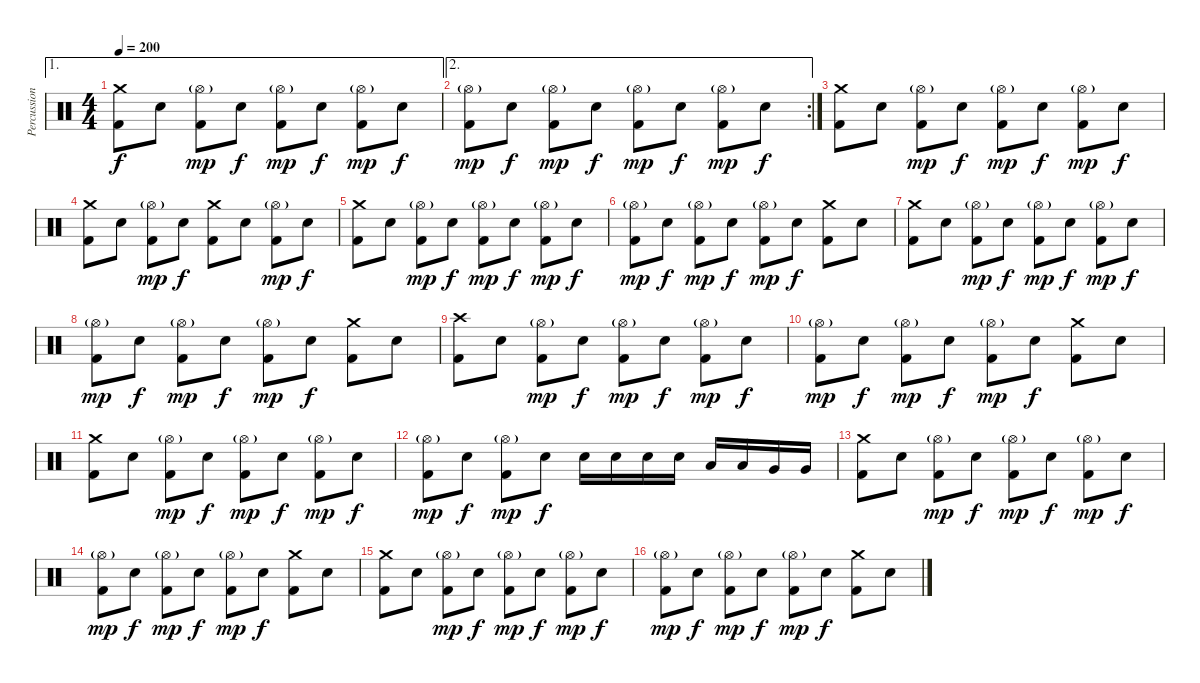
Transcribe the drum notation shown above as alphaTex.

\track ("Percussion" "Percussion") {instrument percussion}
\staff {score}
\articulation defaults
\ae 1
\ts (4 4)
\tempo 200
\clef neutral
\ks c
("Crash medium (hit)" "Kick (hit) 2").8{dy f} "Electric Snare (hit)".8 ("Hi-Hat (open)"{g} "Kick (hit) 2").8{dy mp} "Electric Snare (hit)".8{dy f} ("Hi-Hat (open)"{g} "Kick (hit) 2").8{dy mp} "Electric Snare (hit)".8{dy f} ("Hi-Hat (open)"{g} "Kick (hit) 2").8{dy mp} "Electric Snare (hit)".8{dy f} |
\ae 2
\rc 2
("Hi-Hat (open)"{g} "Kick (hit) 2").8{dy mp} "Electric Snare (hit)".8{dy f} ("Hi-Hat (open)"{g} "Kick (hit) 2").8{dy mp} "Electric Snare (hit)".8{dy f} ("Hi-Hat (open)"{g} "Kick (hit) 2").8{dy mp} "Electric Snare (hit)".8{dy f} ("Hi-Hat (open)"{g} "Kick (hit) 2").8{dy mp} "Electric Snare (hit)".8{dy f} |
("Crash medium (hit)" "Kick (hit) 2").8 "Electric Snare (hit)".8 ("Hi-Hat (open)"{g} "Kick (hit) 2").8{dy mp} "Electric Snare (hit)".8{dy f} ("Hi-Hat (open)"{g} "Kick (hit) 2").8{dy mp} "Electric Snare (hit)".8{dy f} ("Hi-Hat (open)"{g} "Kick (hit) 2").8{dy mp} "Electric Snare (hit)".8{dy f} |
("Crash medium (hit)" "Kick (hit) 2").8 "Electric Snare (hit)".8 ("Hi-Hat (open)"{g} "Kick (hit) 2").8{dy mp} "Electric Snare (hit)".8{dy f} ("Crash medium (hit)" "Kick (hit) 2").8 "Electric Snare (hit)".8 ("Hi-Hat (open)"{g} "Kick (hit) 2").8{dy mp} "Electric Snare (hit)".8{dy f} |
("Crash medium (hit)" "Kick (hit) 2").8 "Electric Snare (hit)".8 ("Hi-Hat (open)"{g} "Kick (hit) 2").8{dy mp} "Electric Snare (hit)".8{dy f} ("Hi-Hat (open)"{g} "Kick (hit) 2").8{dy mp} "Electric Snare (hit)".8{dy f} ("Hi-Hat (open)"{g} "Kick (hit) 2").8{dy mp} "Electric Snare (hit)".8{dy f} |
("Hi-Hat (open)"{g} "Kick (hit) 2").8{dy mp} "Electric Snare (hit)".8{dy f} ("Hi-Hat (open)"{g} "Kick (hit) 2").8{dy mp} "Electric Snare (hit)".8{dy f} ("Hi-Hat (open)"{g} "Kick (hit) 2").8{dy mp} "Electric Snare (hit)".8{dy f} ("Crash medium (hit)" "Kick (hit) 2").8 "Electric Snare (hit)".8 |
("Crash medium (hit)" "Kick (hit) 2").8 "Electric Snare (hit)".8 ("Hi-Hat (open)"{g} "Kick (hit) 2").8{dy mp} "Electric Snare (hit)".8{dy f} ("Hi-Hat (open)"{g} "Kick (hit) 2").8{dy mp} "Electric Snare (hit)".8{dy f} ("Hi-Hat (open)"{g} "Kick (hit) 2").8{dy mp} "Electric Snare (hit)".8{dy f} |
("Hi-Hat (open)"{g} "Kick (hit) 2").8{dy mp} "Electric Snare (hit)".8{dy f} ("Hi-Hat (open)"{g} "Kick (hit) 2").8{dy mp} "Electric Snare (hit)".8{dy f} ("Hi-Hat (open)"{g} "Kick (hit) 2").8{dy mp} "Electric Snare (hit)".8{dy f} ("Crash medium (hit)" "Kick (hit) 2").8 "Electric Snare (hit)".8 |
("Crash high (hit)" "Kick (hit) 2").8 "Electric Snare (hit)".8 ("Hi-Hat (open)"{g} "Kick (hit) 2").8{dy mp} "Electric Snare (hit)".8{dy f} ("Hi-Hat (open)"{g} "Kick (hit) 2").8{dy mp} "Electric Snare (hit)".8{dy f} ("Hi-Hat (open)"{g} "Kick (hit) 2").8{dy mp} "Electric Snare (hit)".8{dy f} |
("Hi-Hat (open)"{g} "Kick (hit) 2").8{dy mp} "Electric Snare (hit)".8{dy f} ("Hi-Hat (open)"{g} "Kick (hit) 2").8{dy mp} "Electric Snare (hit)".8{dy f} ("Hi-Hat (open)"{g} "Kick (hit) 2").8{dy mp} "Electric Snare (hit)".8{dy f} ("Crash medium (hit)" "Kick (hit) 2").8 "Electric Snare (hit)".8 |
("Crash medium (hit)" "Kick (hit) 2").8 "Electric Snare (hit)".8 ("Hi-Hat (open)"{g} "Kick (hit) 2").8{dy mp} "Electric Snare (hit)".8{dy f} ("Hi-Hat (open)"{g} "Kick (hit) 2").8{dy mp} "Electric Snare (hit)".8{dy f} ("Hi-Hat (open)"{g} "Kick (hit) 2").8{dy mp} "Electric Snare (hit)".8{dy f} |
("Hi-Hat (open)"{g} "Kick (hit) 2").8{dy mp} "Electric Snare (hit)".8{dy f} ("Hi-Hat (open)"{g} "Kick (hit) 2").8{dy mp} "Electric Snare (hit)".8{dy f} "Electric Snare (hit)".16 "Electric Snare (hit)".16 "Electric Snare (hit)".16 "Electric Snare (hit)".16 "Low Tom (hit)".16 "Low Tom (hit)".16 "Very Low Tom (hit)".16 "Very Low Tom (hit)".16 |
("Crash medium (hit)" "Kick (hit) 2").8 "Electric Snare (hit)".8 ("Hi-Hat (open)"{g} "Kick (hit) 2").8{dy mp} "Electric Snare (hit)".8{dy f} ("Hi-Hat (open)"{g} "Kick (hit) 2").8{dy mp} "Electric Snare (hit)".8{dy f} ("Hi-Hat (open)"{g} "Kick (hit) 2").8{dy mp} "Electric Snare (hit)".8{dy f} |
("Hi-Hat (open)"{g} "Kick (hit) 2").8{dy mp} "Electric Snare (hit)".8{dy f} ("Hi-Hat (open)"{g} "Kick (hit) 2").8{dy mp} "Electric Snare (hit)".8{dy f} ("Hi-Hat (open)"{g} "Kick (hit) 2").8{dy mp} "Electric Snare (hit)".8{dy f} ("Crash medium (hit)" "Kick (hit) 2").8 "Electric Snare (hit)".8 |
("Crash medium (hit)" "Kick (hit) 2").8 "Electric Snare (hit)".8 ("Hi-Hat (open)"{g} "Kick (hit) 2").8{dy mp} "Electric Snare (hit)".8{dy f} ("Hi-Hat (open)"{g} "Kick (hit) 2").8{dy mp} "Electric Snare (hit)".8{dy f} ("Hi-Hat (open)"{g} "Kick (hit) 2").8{dy mp} "Electric Snare (hit)".8{dy f} |
("Hi-Hat (open)"{g} "Kick (hit) 2").8{dy mp} "Electric Snare (hit)".8{dy f} ("Hi-Hat (open)"{g} "Kick (hit) 2").8{dy mp} "Electric Snare (hit)".8{dy f} ("Hi-Hat (open)"{g} "Kick (hit) 2").8{dy mp} "Electric Snare (hit)".8{dy f} ("Crash medium (hit)" "Kick (hit) 2").8 "Electric Snare (hit)".8
